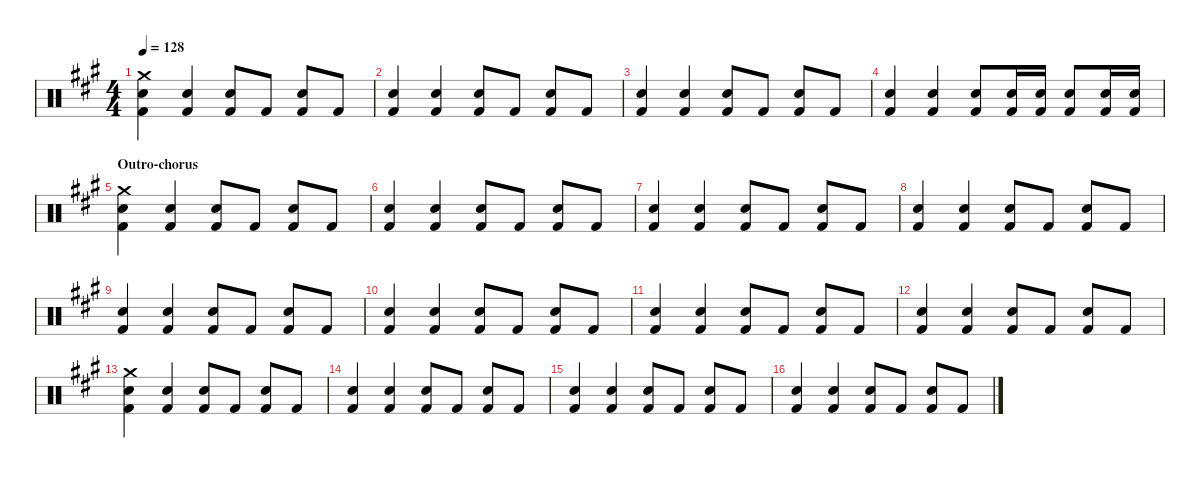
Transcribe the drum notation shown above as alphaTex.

\defaultSystemsLayout 4
\hideDynamics
\bracketExtendMode nobrackets
\singleTrackTrackNamePolicy hidden
\multiTrackTrackNamePolicy hidden
\firstSystemTrackNameMode fullname
\firstSystemTrackNameOrientation horizontal
\otherSystemsTrackNameOrientation horizontal
\track ("Drumkit" "Drums") {instrument percussion}
\staff {score}
\articulation defaults
\ts (4 4)
\tempo 128
\clef neutral
\ks a
("Crash medium (hit)"{acc forcenatural} "Snare (hit) 2"{acc forcenatural} "Kick (hit) 2"{acc forcenatural}).4{dy f beam Down} ("Snare (hit) 2"{acc forcenatural} "Kick (hit) 2"{acc forcenatural}).4{beam Up} ("Snare (hit) 2"{acc forcenatural} "Kick (hit) 2"{acc forcenatural}).8{beam Up} "Kick (hit) 2"{acc forcenatural}.8{beam Up} ("Snare (hit) 2"{acc forcenatural} "Kick (hit) 2"{acc forcenatural}).8{beam Up} "Kick (hit) 2"{acc forcenatural}.8{beam Up} |
("Snare (hit) 2"{acc forcenatural} "Kick (hit) 2"{acc forcenatural}).4{beam Up} ("Snare (hit) 2"{acc forcenatural} "Kick (hit) 2"{acc forcenatural}).4{beam Up} ("Snare (hit) 2"{acc forcenatural} "Kick (hit) 2"{acc forcenatural}).8{beam Up} "Kick (hit) 2"{acc forcenatural}.8{beam Up} ("Snare (hit) 2"{acc forcenatural} "Kick (hit) 2"{acc forcenatural}).8{beam Up} "Kick (hit) 2"{acc forcenatural}.8{beam Up} |
("Snare (hit) 2"{acc forcenatural} "Kick (hit) 2"{acc forcenatural}).4{beam Up} ("Snare (hit) 2"{acc forcenatural} "Kick (hit) 2"{acc forcenatural}).4{beam Up} ("Snare (hit) 2"{acc forcenatural} "Kick (hit) 2"{acc forcenatural}).8{beam Up} "Kick (hit) 2"{acc forcenatural}.8{beam Up} ("Snare (hit) 2"{acc forcenatural} "Kick (hit) 2"{acc forcenatural}).8{beam Up} "Kick (hit) 2"{acc forcenatural}.8{beam Up} |
("Snare (hit) 2"{acc forcenatural} "Kick (hit) 2"{acc forcenatural}).4{beam Up} ("Snare (hit) 2"{acc forcenatural} "Kick (hit) 2"{acc forcenatural}).4{beam Up} ("Snare (hit) 2"{acc forcenatural} "Kick (hit) 2"{acc forcenatural}).8{beam Up} ("Snare (hit) 2"{acc forcenatural} "Kick (hit) 2"{acc forcenatural}).16{beam Up} ("Snare (hit) 2"{acc forcenatural} "Kick (hit) 2"{acc forcenatural}).16{beam Up} ("Snare (hit) 2"{acc forcenatural} "Kick (hit) 2"{acc forcenatural}).8{beam Up} ("Snare (hit) 2"{acc forcenatural} "Kick (hit) 2"{acc forcenatural}).16{beam Up} ("Snare (hit) 2"{acc forcenatural} "Kick (hit) 2"{acc forcenatural}).16{beam Up} |
\section ("" "Outro-chorus")
\scale
0.320388 ("Crash medium (hit)"{acc forcenatural} "Snare (hit) 2"{acc forcenatural} "Kick (hit) 2"{acc forcenatural}).4{beam Down} ("Snare (hit) 2"{acc forcenatural} "Kick (hit) 2"{acc forcenatural}).4{beam Up} ("Snare (hit) 2"{acc forcenatural} "Kick (hit) 2"{acc forcenatural}).8{beam Up} "Kick (hit) 2"{acc forcenatural}.8{beam Up} ("Snare (hit) 2"{acc forcenatural} "Kick (hit) 2"{acc forcenatural}).8{beam Up} "Kick (hit) 2"{acc forcenatural}.8{beam Up} |
\scale
0.226537 ("Snare (hit) 2"{acc forcenatural} "Kick (hit) 2"{acc forcenatural}).4{beam Up} ("Snare (hit) 2"{acc forcenatural} "Kick (hit) 2"{acc forcenatural}).4{beam Up} ("Snare (hit) 2"{acc forcenatural} "Kick (hit) 2"{acc forcenatural}).8{beam Up} "Kick (hit) 2"{acc forcenatural}.8{beam Up} ("Snare (hit) 2"{acc forcenatural} "Kick (hit) 2"{acc forcenatural}).8{beam Up} "Kick (hit) 2"{acc forcenatural}.8{beam Up} |
\scale
0.226537 ("Snare (hit) 2"{acc forcenatural} "Kick (hit) 2"{acc forcenatural}).4{beam Up} ("Snare (hit) 2"{acc forcenatural} "Kick (hit) 2"{acc forcenatural}).4{beam Up} ("Snare (hit) 2"{acc forcenatural} "Kick (hit) 2"{acc forcenatural}).8{beam Up} "Kick (hit) 2"{acc forcenatural}.8{beam Up} ("Snare (hit) 2"{acc forcenatural} "Kick (hit) 2"{acc forcenatural}).8{beam Up} "Kick (hit) 2"{acc forcenatural}.8{beam Up} |
\scale
0.226537 ("Snare (hit) 2"{acc forcenatural} "Kick (hit) 2"{acc forcenatural}).4{beam Up} ("Snare (hit) 2"{acc forcenatural} "Kick (hit) 2"{acc forcenatural}).4{beam Up} ("Snare (hit) 2"{acc forcenatural} "Kick (hit) 2"{acc forcenatural}).8{beam Up} "Kick (hit) 2"{acc forcenatural}.8{beam Up} ("Snare (hit) 2"{acc forcenatural} "Kick (hit) 2"{acc forcenatural}).8{beam Up} "Kick (hit) 2"{acc forcenatural}.8{beam Up} |
("Snare (hit) 2"{acc forcenatural} "Kick (hit) 2"{acc forcenatural}).4{beam Up} ("Snare (hit) 2"{acc forcenatural} "Kick (hit) 2"{acc forcenatural}).4{beam Up} ("Snare (hit) 2"{acc forcenatural} "Kick (hit) 2"{acc forcenatural}).8{beam Up} "Kick (hit) 2"{acc forcenatural}.8{beam Up} ("Snare (hit) 2"{acc forcenatural} "Kick (hit) 2"{acc forcenatural}).8{beam Up} "Kick (hit) 2"{acc forcenatural}.8{beam Up} |
("Snare (hit) 2"{acc forcenatural} "Kick (hit) 2"{acc forcenatural}).4{beam Up} ("Snare (hit) 2"{acc forcenatural} "Kick (hit) 2"{acc forcenatural}).4{beam Up} ("Snare (hit) 2"{acc forcenatural} "Kick (hit) 2"{acc forcenatural}).8{beam Up} "Kick (hit) 2"{acc forcenatural}.8{beam Up} ("Snare (hit) 2"{acc forcenatural} "Kick (hit) 2"{acc forcenatural}).8{beam Up} "Kick (hit) 2"{acc forcenatural}.8{beam Up} |
("Snare (hit) 2"{acc forcenatural} "Kick (hit) 2"{acc forcenatural}).4{beam Up} ("Snare (hit) 2"{acc forcenatural} "Kick (hit) 2"{acc forcenatural}).4{beam Up} ("Snare (hit) 2"{acc forcenatural} "Kick (hit) 2"{acc forcenatural}).8{beam Up} "Kick (hit) 2"{acc forcenatural}.8{beam Up} ("Snare (hit) 2"{acc forcenatural} "Kick (hit) 2"{acc forcenatural}).8{beam Up} "Kick (hit) 2"{acc forcenatural}.8{beam Up} |
("Snare (hit) 2"{acc forcenatural} "Kick (hit) 2"{acc forcenatural}).4{beam Up} ("Snare (hit) 2"{acc forcenatural} "Kick (hit) 2"{acc forcenatural}).4{beam Up} ("Snare (hit) 2"{acc forcenatural} "Kick (hit) 2"{acc forcenatural}).8{beam Up} "Kick (hit) 2"{acc forcenatural}.8{beam Up} ("Snare (hit) 2"{acc forcenatural} "Kick (hit) 2"{acc forcenatural}).8{beam Up} "Kick (hit) 2"{acc forcenatural}.8{beam Up} |
("Crash medium (hit)"{acc forcenatural} "Snare (hit) 2"{acc forcenatural} "Kick (hit) 2"{acc forcenatural}).4{beam Down} ("Snare (hit) 2"{acc forcenatural} "Kick (hit) 2"{acc forcenatural}).4{beam Up} ("Snare (hit) 2"{acc forcenatural} "Kick (hit) 2"{acc forcenatural}).8{beam Up} "Kick (hit) 2"{acc forcenatural}.8{beam Up} ("Snare (hit) 2"{acc forcenatural} "Kick (hit) 2"{acc forcenatural}).8{beam Up} "Kick (hit) 2"{acc forcenatural}.8{beam Up} |
("Snare (hit) 2"{acc forcenatural} "Kick (hit) 2"{acc forcenatural}).4{beam Up} ("Snare (hit) 2"{acc forcenatural} "Kick (hit) 2"{acc forcenatural}).4{beam Up} ("Snare (hit) 2"{acc forcenatural} "Kick (hit) 2"{acc forcenatural}).8{beam Up} "Kick (hit) 2"{acc forcenatural}.8{beam Up} ("Snare (hit) 2"{acc forcenatural} "Kick (hit) 2"{acc forcenatural}).8{beam Up} "Kick (hit) 2"{acc forcenatural}.8{beam Up} |
("Snare (hit) 2"{acc forcenatural} "Kick (hit) 2"{acc forcenatural}).4{beam Up} ("Snare (hit) 2"{acc forcenatural} "Kick (hit) 2"{acc forcenatural}).4{beam Up} ("Snare (hit) 2"{acc forcenatural} "Kick (hit) 2"{acc forcenatural}).8{beam Up} "Kick (hit) 2"{acc forcenatural}.8{beam Up} ("Snare (hit) 2"{acc forcenatural} "Kick (hit) 2"{acc forcenatural}).8{beam Up} "Kick (hit) 2"{acc forcenatural}.8{beam Up} |
("Snare (hit) 2"{acc forcenatural} "Kick (hit) 2"{acc forcenatural}).4{beam Up} ("Snare (hit) 2"{acc forcenatural} "Kick (hit) 2"{acc forcenatural}).4{beam Up} ("Snare (hit) 2"{acc forcenatural} "Kick (hit) 2"{acc forcenatural}).8{beam Up} "Kick (hit) 2"{acc forcenatural}.8{beam Up} ("Snare (hit) 2"{acc forcenatural} "Kick (hit) 2"{acc forcenatural}).8{beam Up} "Kick (hit) 2"{acc forcenatural}.8{beam Up}
